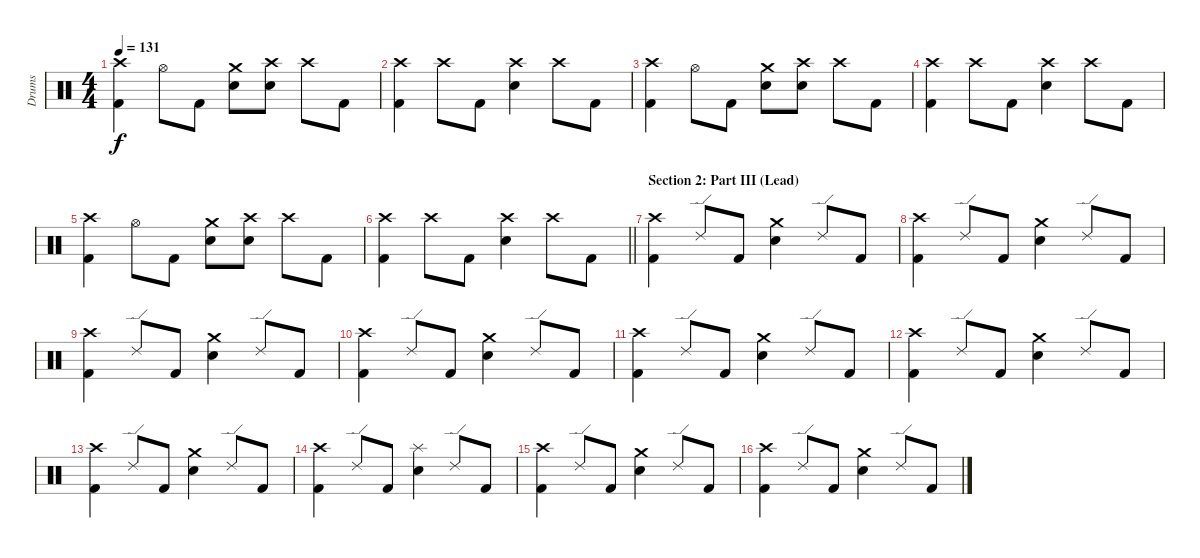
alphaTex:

\track ("Drums" "Drums") {instrument percussion}
\staff {score}
\articulation defaults
\ts (4 4)
\tempo 131
\clef neutral
\ks c
("Crash high (hit)" "Kick (hit) 2").4{dy f} "Hi-Hat (open)".8 "Kick (hit) 2".8 ("Crash medium (hit)" "Electric Snare (hit)").8 ("Crash high (hit)" "Electric Snare (hit)").8 "Crash high (hit)".8 "Kick (hit) 2".8 |
("Crash high (hit)" "Kick (hit) 2").4 "Crash high (hit)".8 "Kick (hit) 2".8 ("Crash high (hit)" "Electric Snare (hit)").4 "Crash high (hit)".8 "Kick (hit) 2".8 |
("Crash high (hit)" "Kick (hit) 2").4 "Hi-Hat (open)".8 "Kick (hit) 2".8 ("Crash medium (hit)" "Electric Snare (hit)").8 ("Crash high (hit)" "Electric Snare (hit)").8 "Crash high (hit)".8 "Kick (hit) 2".8 |
("Crash high (hit)" "Kick (hit) 2").4 "Crash high (hit)".8 "Kick (hit) 2".8 ("Crash high (hit)" "Electric Snare (hit)").4 "Crash high (hit)".8 "Kick (hit) 2".8 |
("Crash high (hit)" "Kick (hit) 2").4 "Hi-Hat (open)".8 "Kick (hit) 2".8 ("Crash medium (hit)" "Electric Snare (hit)").8 ("Crash high (hit)" "Electric Snare (hit)").8 "Crash high (hit)".8 "Kick (hit) 2".8 |
\barLineRight lightlight
("Crash high (hit)" "Kick (hit) 2").4 "Crash high (hit)".8 "Kick (hit) 2".8 ("Crash high (hit)" "Electric Snare (hit)").4 "Crash high (hit)".8 "Kick (hit) 2".8 |
\section ("" "Section 2: Part III (Lead)")
("Crash high (hit)" "Kick (hit) 2").4 "Ride (edge) 2".8 "Kick (hit) 2".8 ("Crash medium (hit)" "Electric Snare (hit)").4 "Ride (edge) 2".8 "Kick (hit) 2".8 |
("Crash high (hit)" "Kick (hit) 2").4 "Ride (edge) 2".8 "Kick (hit) 2".8 ("Crash medium (hit)" "Electric Snare (hit)").4 "Ride (edge) 2".8 "Kick (hit) 2".8 |
("Crash high (hit)" "Kick (hit) 2").4 "Ride (edge) 2".8 "Kick (hit) 2".8 ("Crash medium (hit)" "Electric Snare (hit)").4 "Ride (edge) 2".8 "Kick (hit) 2".8 |
("Crash high (hit)" "Kick (hit) 2").4 "Ride (edge) 2".8 "Kick (hit) 2".8 ("Crash medium (hit)" "Electric Snare (hit)").4 "Ride (edge) 2".8 "Kick (hit) 2".8 |
("Crash high (hit)" "Kick (hit) 2").4 "Ride (edge) 2".8 "Kick (hit) 2".8 ("Crash medium (hit)" "Electric Snare (hit)").4 "Ride (edge) 2".8 "Kick (hit) 2".8 |
("Crash high (hit)" "Kick (hit) 2").4 "Ride (edge) 2".8 "Kick (hit) 2".8 ("Crash medium (hit)" "Electric Snare (hit)").4 "Ride (edge) 2".8 "Kick (hit) 2".8 |
("Crash high (hit)" "Kick (hit) 2").4 "Ride (edge) 2".8 "Kick (hit) 2".8 ("Crash medium (hit)" "Electric Snare (hit)").4 "Ride (edge) 2".8 "Kick (hit) 2".8 |
("Crash high (hit)" "Kick (hit) 2").4 "Ride (edge) 2".8 "Kick (hit) 2".8 ("Splash (hit)" "Electric Snare (hit)").4 "Ride (edge) 2".8 "Kick (hit) 2".8 |
("Crash high (hit)" "Kick (hit) 2").4 "Ride (edge) 2".8 "Kick (hit) 2".8 ("Crash medium (hit)" "Electric Snare (hit)").4 "Ride (edge) 2".8 "Kick (hit) 2".8 |
("Crash high (hit)" "Kick (hit) 2").4 "Ride (edge) 2".8 "Kick (hit) 2".8 ("Crash medium (hit)" "Electric Snare (hit)").4 "Ride (edge) 2".8 "Kick (hit) 2".8
